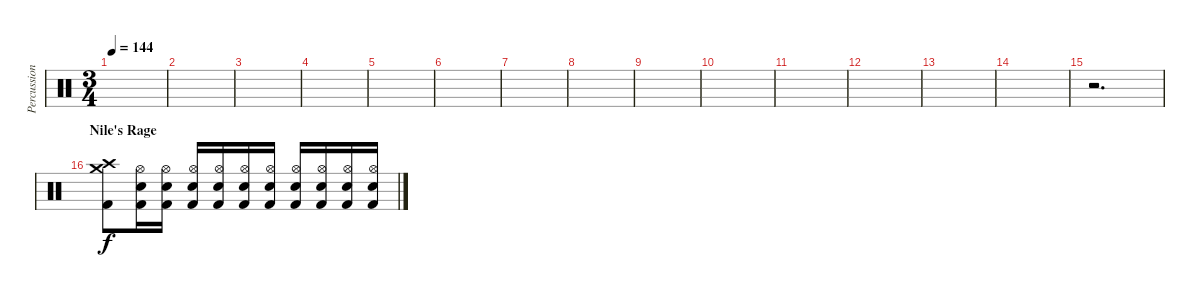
\track ("Percussion" "Percussion") {instrument percussion}
\staff {score}
\articulation defaults
\ts (3 4)
\tempo 144
\clef neutral
\ks c
|
|
|
|
|
|
|
|
|
|
|
|
|
|
r.2{d} |
\section ("" "Nile's Rage")
("Crash high (hit)" "Crash medium (hit)" "Kick (hit) 2").8 ("Hi-Hat (open)" "Electric Snare (hit)" "Kick (hit) 2").16 ("Hi-Hat (open)" "Electric Snare (hit)" "Kick (hit) 2").16 ("Hi-Hat (open)" "Electric Snare (hit)" "Kick (hit) 2").16 ("Hi-Hat (open)" "Electric Snare (hit)" "Kick (hit) 2").16 ("Hi-Hat (open)" "Electric Snare (hit)" "Kick (hit) 2").16 ("Hi-Hat (open)" "Electric Snare (hit)" "Kick (hit) 2").16 ("Hi-Hat (open)" "Electric Snare (hit)" "Kick (hit) 2").16 ("Hi-Hat (open)" "Electric Snare (hit)" "Kick (hit) 2").16 ("Hi-Hat (open)" "Electric Snare (hit)" "Kick (hit) 2").16 ("Hi-Hat (open)" "Electric Snare (hit)" "Kick (hit) 2").16
